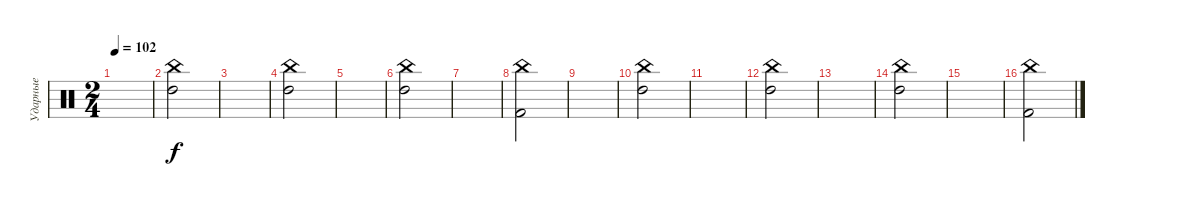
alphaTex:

\track ("Ударные" "Ударные") {instrument percussion}
\staff {score}
\articulation defaults
\ts (2 4)
\tempo 102
\clef neutral
\ks c
|
("China (hit)" "High Tom (hit)").2 |
|
("China (hit)" "High Tom (hit)").2 |
|
("China (hit)" "High Tom (hit)").2 |
|
("China (hit)" "Kick (hit) 2").2 |
|
("China (hit)" "High Tom (hit)").2 |
|
("China (hit)" "High Tom (hit)").2 |
|
("China (hit)" "High Tom (hit)").2 |
|
("China (hit)" "Kick (hit) 2").2
